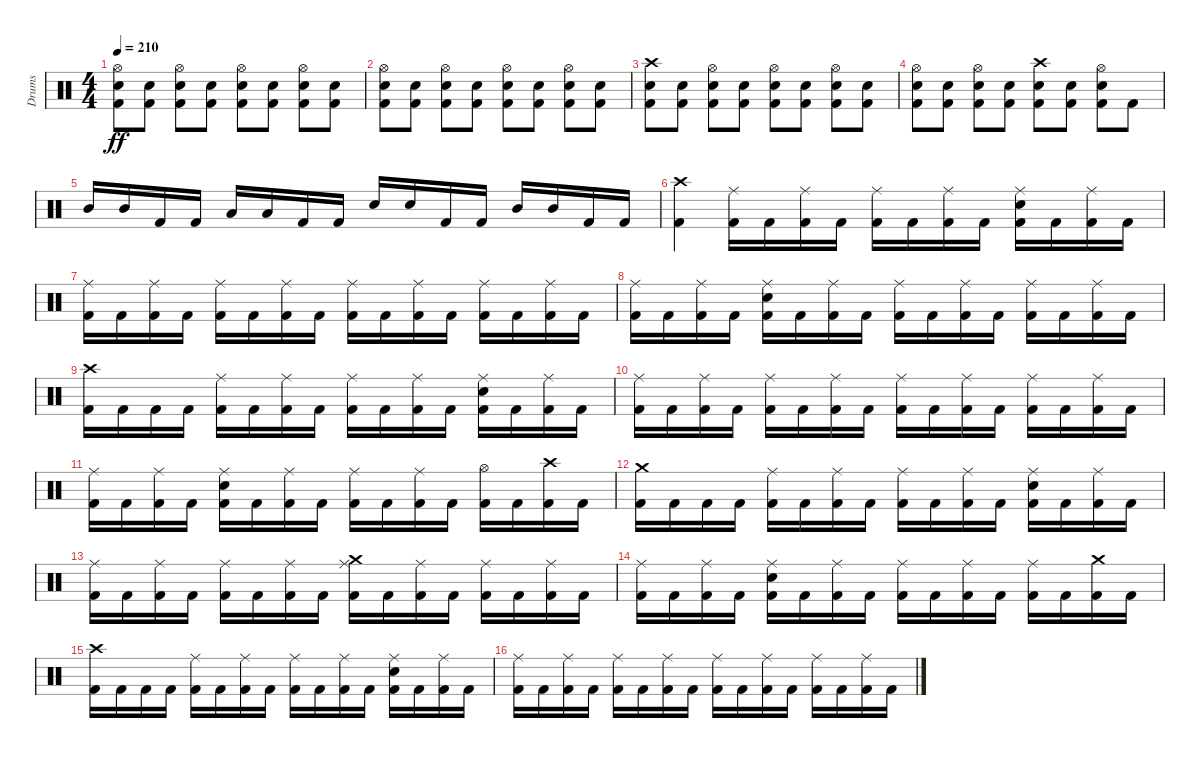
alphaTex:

\track ("Drums" "Drums") {instrument percussion}
\staff {score}
\articulation defaults
\ts (4 4)
\tempo 210
\clef neutral
\ks c
("Hi-Hat (open)" "Snare (hit) 2" "Kick (hit) 2").8{dy ff} ("Snare (hit) 2" "Kick (hit) 2").8 ("Hi-Hat (open)" "Snare (hit) 2" "Kick (hit) 2").8 ("Snare (hit) 2" "Kick (hit) 2").8 ("Hi-Hat (open)" "Snare (hit) 2" "Kick (hit) 2").8 ("Snare (hit) 2" "Kick (hit) 2").8 ("Hi-Hat (open)" "Snare (hit) 2" "Kick (hit) 2").8 ("Snare (hit) 2" "Kick (hit) 2").8 |
("Hi-Hat (open)" "Snare (hit) 2" "Kick (hit) 2").8 ("Snare (hit) 2" "Kick (hit) 2").8 ("Hi-Hat (open)" "Snare (hit) 2" "Kick (hit) 2").8 ("Snare (hit) 2" "Kick (hit) 2").8 ("Hi-Hat (open)" "Snare (hit) 2" "Kick (hit) 2").8 ("Snare (hit) 2" "Kick (hit) 2").8 ("Hi-Hat (open)" "Snare (hit) 2" "Kick (hit) 2").8 ("Snare (hit) 2" "Kick (hit) 2").8 |
("Crash high (hit)" "Snare (hit) 2" "Kick (hit) 2").8 ("Snare (hit) 2" "Kick (hit) 2").8 ("Hi-Hat (open)" "Snare (hit) 2" "Kick (hit) 2").8 ("Snare (hit) 2" "Kick (hit) 2").8 ("Hi-Hat (open)" "Snare (hit) 2" "Kick (hit) 2").8 ("Snare (hit) 2" "Kick (hit) 2").8 ("Hi-Hat (open)" "Snare (hit) 2" "Kick (hit) 2").8 ("Snare (hit) 2" "Kick (hit) 2").8 |
("Hi-Hat (open)" "Snare (hit) 2" "Kick (hit) 2").8 ("Snare (hit) 2" "Kick (hit) 2").8 ("Hi-Hat (open)" "Snare (hit) 2" "Kick (hit) 2").8 ("Snare (hit) 2" "Kick (hit) 2").8 ("Crash high (hit)" "Snare (hit) 2" "Kick (hit) 2").8 ("Snare (hit) 2" "Kick (hit) 2").8 ("Hi-Hat (open)" "Snare (hit) 2" "Kick (hit) 2").8 "Kick (hit) 2".8 |
"Mid Tom (hit)".16 "Mid Tom (hit)".16 "Kick (hit) 2".16 "Kick (hit) 2".16 "Low Tom (hit)".16 "Low Tom (hit)".16 "Kick (hit) 2".16 "Kick (hit) 2".16 "Snare (hit) 2".16 "Snare (hit) 2".16 "Kick (hit) 2".16 "Kick (hit) 2".16 "Mid Tom (hit)".16 "Mid Tom (hit)".16 "Kick (hit) 2".16 "Kick (hit) 2".16 |
("Crash high (hit)" "Kick (hit) 2").4 ("Ride (middle)" "Kick (hit) 2").16 "Kick (hit) 2".16 ("Ride (middle)" "Kick (hit) 2").16 "Kick (hit) 2".16 ("Ride (middle)" "Kick (hit) 2").16 "Kick (hit) 2".16 ("Ride (middle)" "Kick (hit) 2").16 "Kick (hit) 2".16 ("Ride (middle)" "Snare (hit) 2" "Kick (hit) 2").16 "Kick (hit) 2".16 ("Ride (middle)" "Kick (hit) 2").16 "Kick (hit) 2".16 |
("Ride (middle)" "Kick (hit) 2").16 "Kick (hit) 2".16 ("Ride (middle)" "Kick (hit) 2").16 "Kick (hit) 2".16 ("Ride (middle)" "Kick (hit) 2").16 "Kick (hit) 2".16 ("Ride (middle)" "Kick (hit) 2").16 "Kick (hit) 2".16 ("Ride (middle)" "Kick (hit) 2").16 "Kick (hit) 2".16 ("Ride (middle)" "Kick (hit) 2").16 "Kick (hit) 2".16 ("Ride (middle)" "Kick (hit) 2").16 "Kick (hit) 2".16 ("Ride (middle)" "Kick (hit) 2").16 "Kick (hit) 2".16 |
("Ride (middle)" "Kick (hit) 2").16 "Kick (hit) 2".16 ("Ride (middle)" "Kick (hit) 2").16 "Kick (hit) 2".16 ("Ride (middle)" "Snare (hit) 2" "Kick (hit) 2").16 "Kick (hit) 2".16 ("Ride (middle)" "Kick (hit) 2").16 "Kick (hit) 2".16 ("Ride (middle)" "Kick (hit) 2").16 "Kick (hit) 2".16 ("Ride (middle)" "Kick (hit) 2").16 "Kick (hit) 2".16 ("Ride (middle)" "Kick (hit) 2").16 "Kick (hit) 2".16 ("Ride (middle)" "Kick (hit) 2").16 "Kick (hit) 2".16 |
("Crash high (hit)" "Kick (hit) 2").16 "Kick (hit) 2".16 "Kick (hit) 2".16 "Kick (hit) 2".16 ("Ride (middle)" "Kick (hit) 2").16 "Kick (hit) 2".16 ("Ride (middle)" "Kick (hit) 2").16 "Kick (hit) 2".16 ("Ride (middle)" "Kick (hit) 2").16 "Kick (hit) 2".16 ("Ride (middle)" "Kick (hit) 2").16 "Kick (hit) 2".16 ("Ride (middle)" "Snare (hit) 2" "Kick (hit) 2").16 "Kick (hit) 2".16 ("Ride (middle)" "Kick (hit) 2").16 "Kick (hit) 2".16 |
("Ride (middle)" "Kick (hit) 2").16 "Kick (hit) 2".16 ("Ride (middle)" "Kick (hit) 2").16 "Kick (hit) 2".16 ("Ride (middle)" "Kick (hit) 2").16 "Kick (hit) 2".16 ("Ride (middle)" "Kick (hit) 2").16 "Kick (hit) 2".16 ("Ride (middle)" "Kick (hit) 2").16 "Kick (hit) 2".16 ("Ride (middle)" "Kick (hit) 2").16 "Kick (hit) 2".16 ("Ride (middle)" "Kick (hit) 2").16 "Kick (hit) 2".16 ("Ride (middle)" "Kick (hit) 2").16 "Kick (hit) 2".16 |
("Ride (middle)" "Kick (hit) 2").16 "Kick (hit) 2".16 ("Ride (middle)" "Kick (hit) 2").16 "Kick (hit) 2".16 ("Ride (middle)" "Snare (hit) 2" "Kick (hit) 2").16 "Kick (hit) 2".16 ("Ride (middle)" "Kick (hit) 2").16 "Kick (hit) 2".16 ("Ride (middle)" "Kick (hit) 2").16 "Kick (hit) 2".16 ("Ride (middle)" "Kick (hit) 2").16 "Kick (hit) 2".16 ("Hi-Hat (open)" "Kick (hit) 2").16 "Kick (hit) 2".16 ("Crash high (hit)" "Kick (hit) 2").16 "Kick (hit) 2".16 |
("Crash medium (hit)" "Kick (hit) 2").16 "Kick (hit) 2".16 "Kick (hit) 2".16 "Kick (hit) 2".16 ("Ride (middle)" "Kick (hit) 2").16 "Kick (hit) 2".16 ("Ride (middle)" "Kick (hit) 2").16 "Kick (hit) 2".16 ("Ride (middle)" "Kick (hit) 2").16 "Kick (hit) 2".16 ("Ride (middle)" "Kick (hit) 2").16 "Kick (hit) 2".16 ("Ride (middle)" "Snare (hit) 2" "Kick (hit) 2").16 "Kick (hit) 2".16 ("Ride (middle)" "Kick (hit) 2").16 "Kick (hit) 2".16 |
("Ride (middle)" "Kick (hit) 2").16 "Kick (hit) 2".16 ("Ride (middle)" "Kick (hit) 2").16 "Kick (hit) 2".16 ("Ride (middle)" "Kick (hit) 2").16 "Kick (hit) 2".16 ("Ride (middle)" "Kick (hit) 2").16 "Kick (hit) 2".16 ("Ride (middle)" "Crash medium (hit)" "Kick (hit) 2").16 "Kick (hit) 2".16 ("Ride (middle)" "Kick (hit) 2").16 "Kick (hit) 2".16 ("Ride (middle)" "Kick (hit) 2").16 "Kick (hit) 2".16 ("Ride (middle)" "Kick (hit) 2").16 "Kick (hit) 2".16 |
("Ride (middle)" "Kick (hit) 2").16 "Kick (hit) 2".16 ("Ride (middle)" "Kick (hit) 2").16 "Kick (hit) 2".16 ("Ride (middle)" "Snare (hit) 2" "Kick (hit) 2").16 "Kick (hit) 2".16 ("Ride (middle)" "Kick (hit) 2").16 "Kick (hit) 2".16 ("Ride (middle)" "Kick (hit) 2").16 "Kick (hit) 2".16 ("Ride (middle)" "Kick (hit) 2").16 "Kick (hit) 2".16 ("Ride (middle)" "Kick (hit) 2").16 "Kick (hit) 2".16 ("Crash medium (hit)" "Kick (hit) 2").16 "Kick (hit) 2".16 |
("Crash high (hit)" "Kick (hit) 2").16 "Kick (hit) 2".16 "Kick (hit) 2".16 "Kick (hit) 2".16 ("Ride (middle)" "Kick (hit) 2").16 "Kick (hit) 2".16 ("Ride (middle)" "Kick (hit) 2").16 "Kick (hit) 2".16 ("Ride (middle)" "Kick (hit) 2").16 "Kick (hit) 2".16 ("Ride (middle)" "Kick (hit) 2").16 "Kick (hit) 2".16 ("Ride (middle)" "Snare (hit) 2" "Kick (hit) 2").16 "Kick (hit) 2".16 ("Ride (middle)" "Kick (hit) 2").16 "Kick (hit) 2".16 |
("Ride (middle)" "Kick (hit) 2").16 "Kick (hit) 2".16 ("Ride (middle)" "Kick (hit) 2").16 "Kick (hit) 2".16 ("Ride (middle)" "Kick (hit) 2").16 "Kick (hit) 2".16 ("Ride (middle)" "Kick (hit) 2").16 "Kick (hit) 2".16 ("Ride (middle)" "Kick (hit) 2").16 "Kick (hit) 2".16 ("Ride (middle)" "Kick (hit) 2").16 "Kick (hit) 2".16 ("Ride (middle)" "Kick (hit) 2").16 "Kick (hit) 2".16 ("Ride (middle)" "Kick (hit) 2").16 "Kick (hit) 2".16
